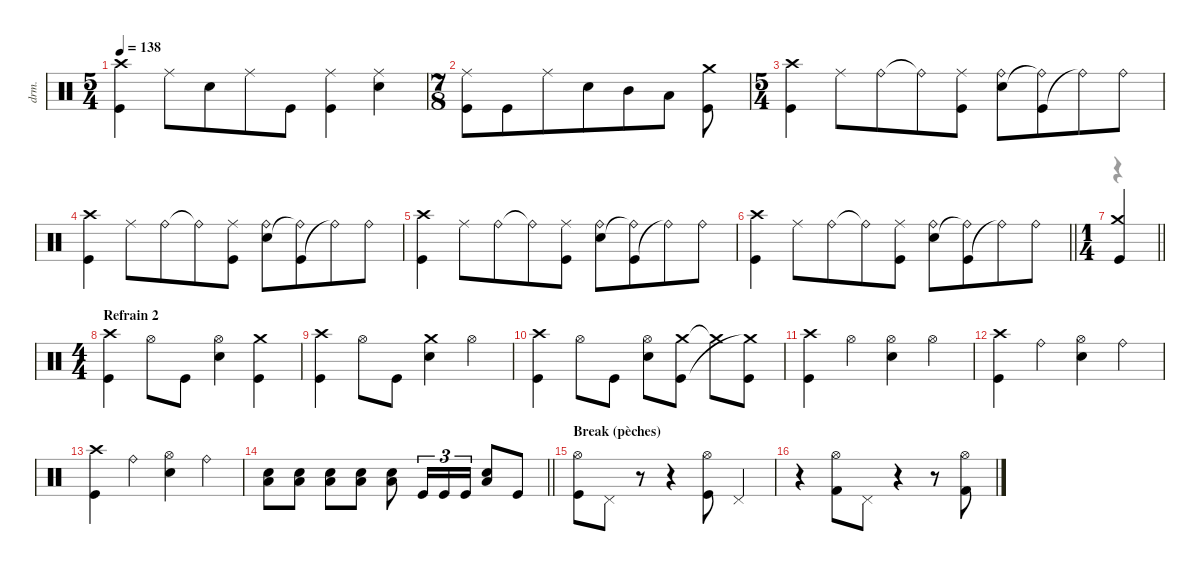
\defaultSystemsLayout 4
\hideDynamics
\bracketExtendMode nobrackets
\track ("Percussions" "drm.") {instrument percussion}
\staff {score}
\articulation defaults
\voice
\ts (5 4)
\beaming (8 6 4)
\tempo 138
\clef neutral
\ks aminor
("Crash high (hit)" "Kick (hit)").4{dy f} "Ride (middle)".8 "Snare (hit) 2".8 "Ride (middle)".8 "Kick (hit)".8 ("Ride (middle)" "Kick (hit)").4 ("Ride (middle)" "Snare (hit) 2").4 |
\ts (7 8)
\beaming (8 6 4)
("Ride (middle)" "Kick (hit)").8 "Kick (hit)".8 "Ride (middle)".8 "Snare (hit) 2".8 "Mid Tom (hit)".8 "Low Tom (hit)".8 ("Kick (hit)" "Crash medium (hit)").8 |
\ts (5 4)
\beaming (8 6 4)
("Crash high (hit)" "Kick (hit)").4 "Ride (middle)".8 "Ride (bell)".8 "Ride (bell)"{t}.8 ("Ride (middle)" "Kick (hit)").8 ("Ride (bell)" "Snare (hit) 2").8 ("Kick (hit)" "Ride (bell)"{t}).8 "Ride (bell)"{t}.8 "Ride (bell)".8 |
("Crash high (hit)" "Kick (hit)").4 "Ride (middle)".8 "Ride (bell)".8 "Ride (bell)"{t}.8 ("Ride (middle)" "Kick (hit)").8 ("Ride (bell)" "Snare (hit) 2").8 ("Kick (hit)" "Ride (bell)"{t}).8 "Ride (bell)"{t}.8 "Ride (bell)".8 |
("Crash high (hit)" "Kick (hit)").4 "Ride (middle)".8 "Ride (bell)".8 "Ride (bell)"{t}.8 ("Ride (middle)" "Kick (hit)").8 ("Ride (bell)" "Snare (hit) 2").8 ("Kick (hit)" "Ride (bell)"{t}).8 "Ride (bell)"{t}.8 "Ride (bell)".8 |
\barLineRight lightlight
("Crash high (hit)" "Kick (hit)").4 "Ride (middle)".8 "Ride (bell)".8 "Ride (bell)"{t}.8 ("Ride (middle)" "Kick (hit)").8 ("Ride (bell)" "Snare (hit) 2").8 ("Kick (hit)" "Ride (bell)"{t}).8 "Ride (bell)"{t}.8 "Ride (bell)".8 |
\ts (1 4)
\beaming (8 2)
\barLineRight lightlight
("Kick (hit)" "Crash medium (hit)").4 |
\ts (4 4)
\beaming (8 2 2 2 2)
\section ("" "Refrain 2")
("Kick (hit)" "Crash high (hit)").4 "Hi-Hat (open)".8 "Kick (hit)".8 ("Hi-Hat (open)" "Snare (hit) 2").4 ("Crash medium (hit)" "Kick (hit)").4 |
("Kick (hit)" "Crash high (hit)").4 "Hi-Hat (open)".8 "Kick (hit)".8 ("Crash medium (hit)" "Snare (hit) 2").4 "Hi-Hat (open)".4 |
("Kick (hit)" "Crash high (hit)").4 "Hi-Hat (open)".8 "Kick (hit)".8 ("Hi-Hat (open)" "Snare (hit) 2").8 ("Crash medium (hit)" "Kick (hit)").8 "Crash medium (hit)"{t}.8 ("Kick (hit)" "Crash medium (hit)"{t}).8 |
("Kick (hit)" "Crash high (hit)").4 "Hi-Hat (open)".4 ("Hi-Hat (open)" "Snare (hit) 2").4 "Hi-Hat (open)".4 |
("Kick (hit)" "Crash high (hit)").4 "Ride (bell)".4 ("Hi-Hat (open)" "Snare (hit) 2").4 "Ride (bell)".4 |
("Kick (hit)" "Crash high (hit)").4 "Ride (bell)".4 ("Hi-Hat (open)" "Snare (hit) 2").4 "Ride (bell)".4 |
\barLineRight lightlight
("Snare (hit) 2" "Low Tom (hit)").8 ("Snare (hit) 2" "Low Tom (hit)").8 ("Snare (hit) 2" "Low Tom (hit)").8 ("Snare (hit) 2" "Low Tom (hit)").8 ("Snare (hit) 2" "Low Tom (hit)").8 "Kick (hit)".16{tu (3 2)} "Kick (hit)".16{tu (3 2)} "Kick (hit)".16{tu (3 2)} ("Snare (hit) 2" "Low Tom (hit)").8 "Kick (hit)".8 |
\section ("" "Break (pèches)")
("Hi-Hat (open)" "Kick (hit)").8 "Pedal Hi-Hat (hit)".8 r.8 r.4 ("Hi-Hat (open)" "Kick (hit)").8 "Pedal Hi-Hat (hit)".4 |
r.4 ("Kick (hit) 2" "Hi-Hat (open)").8 "Pedal Hi-Hat (hit)".8 r.4 r.8 ("Kick (hit) 2" "Hi-Hat (open)").8
\voice
\clef neutral
\ottava regular
\simile none
\ks aminor
|
|
|
|
|
\barLineRight lightlight
|
\barLineRight lightlight
r.4{dy mf} |
|
|
|
|
|
|
\barLineRight lightlight
|
|
